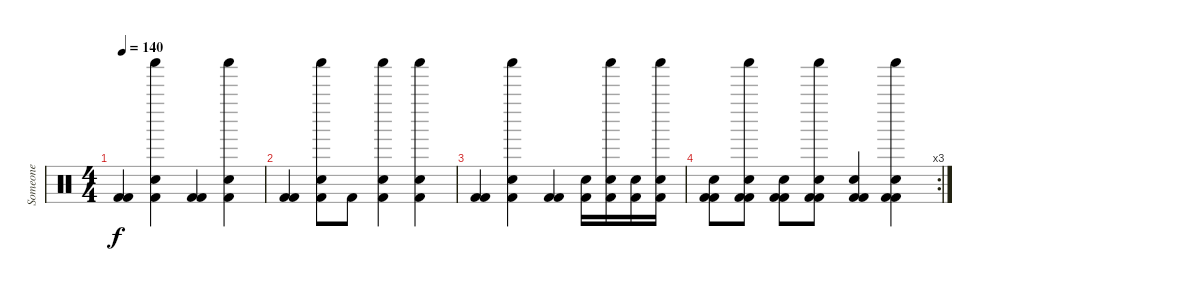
\track ("Someone" "Someone") {instrument percussion}
\staff {score}
\articulation defaults
\ts (4 4)
\tempo 140
\clef neutral
\ks c
("Kick (hit) 2" "Kick (hit) 2").4{dy f} ("Kick (hit) 2" "Snare (hit) 2" "Shaker (hit)").4 ("Kick (hit) 2" "Kick (hit) 2").4 ("Kick (hit) 2" "Snare (hit) 2" "Shaker (hit)").4 |
("Kick (hit) 2" "Kick (hit) 2").4 ("Kick (hit) 2" "Snare (hit) 2" "Shaker (hit)").8 "Kick (hit) 2".8 ("Kick (hit) 2" "Snare (hit) 2" "Shaker (hit)").4 ("Kick (hit) 2" "Snare (hit) 2" "Shaker (hit)").4 |
("Kick (hit) 2" "Kick (hit) 2").4 ("Kick (hit) 2" "Snare (hit) 2" "Shaker (hit)").4 ("Kick (hit) 2" "Kick (hit) 2").4 ("Kick (hit) 2" "Snare (hit) 2").16 ("Kick (hit) 2" "Snare (hit) 2" "Shaker (hit)").16 ("Kick (hit) 2" "Snare (hit) 2").16 ("Kick (hit) 2" "Snare (hit) 2" "Shaker (hit)").16 |
\rc 3
("Kick (hit) 2" "Snare (hit) 2" "Kick (hit) 2").8 ("Kick (hit) 2" "Snare (hit) 2" "Shaker (hit)" "Kick (hit) 2").8 ("Kick (hit) 2" "Snare (hit) 2" "Kick (hit) 2").8 ("Kick (hit) 2" "Snare (hit) 2" "Shaker (hit)" "Kick (hit) 2").8 ("Kick (hit) 2" "Snare (hit) 2" "Kick (hit) 2").4 ("Kick (hit) 2" "Snare (hit) 2" "Shaker (hit)" "Kick (hit) 2").4
